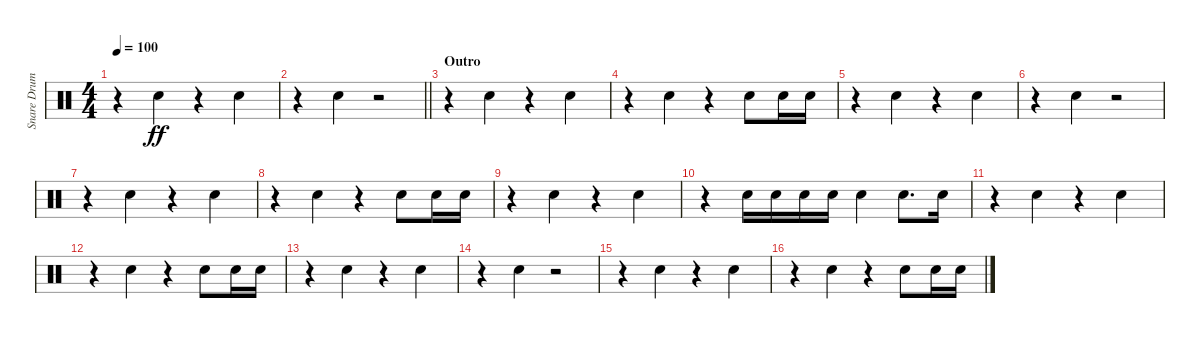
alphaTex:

\track ("Snare Drum" "Snare Drum") {instrument percussion}
\staff {score}
\articulation defaults
\ts (4 4)
\tempo 100
\clef neutral
\ks c
r.4{dy ff} "Electric Snare (hit)".4 r.4 "Electric Snare (hit)".4 |
\barLineRight lightlight
r.4 "Electric Snare (hit)".4 r.2 |
\section ("" "Outro")
r.4 "Electric Snare (hit)".4 r.4 "Electric Snare (hit)".4 |
r.4 "Electric Snare (hit)".4 r.4 "Electric Snare (hit)".8 "Electric Snare (hit)".16 "Electric Snare (hit)".16 |
r.4 "Electric Snare (hit)".4 r.4 "Electric Snare (hit)".4 |
r.4 "Electric Snare (hit)".4 r.2 |
r.4 "Electric Snare (hit)".4 r.4 "Electric Snare (hit)".4 |
r.4 "Electric Snare (hit)".4 r.4 "Electric Snare (hit)".8 "Electric Snare (hit)".16 "Electric Snare (hit)".16 |
r.4 "Electric Snare (hit)".4 r.4 "Electric Snare (hit)".4 |
r.4 "Electric Snare (hit)".16 "Electric Snare (hit)".16 "Electric Snare (hit)".16 "Electric Snare (hit)".16 "Electric Snare (hit)".4 "Electric Snare (hit)".8{d} "Electric Snare (hit)".16 |
r.4 "Electric Snare (hit)".4 r.4 "Electric Snare (hit)".4 |
r.4 "Electric Snare (hit)".4 r.4 "Electric Snare (hit)".8 "Electric Snare (hit)".16 "Electric Snare (hit)".16 |
r.4 "Electric Snare (hit)".4 r.4 "Electric Snare (hit)".4 |
r.4 "Electric Snare (hit)".4 r.2 |
r.4 "Electric Snare (hit)".4 r.4 "Electric Snare (hit)".4 |
r.4 "Electric Snare (hit)".4 r.4 "Electric Snare (hit)".8 "Electric Snare (hit)".16 "Electric Snare (hit)".16
